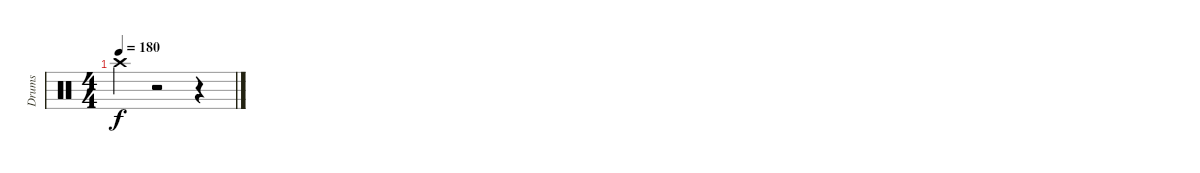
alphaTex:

\track ("Drums" "Drums") {instrument percussion}
\staff {score}
\articulation defaults
\ts (4 4)
\tempo 180
\clef neutral
\ks c "Crash high (hit)".4{dy f}
r.2 r.4
